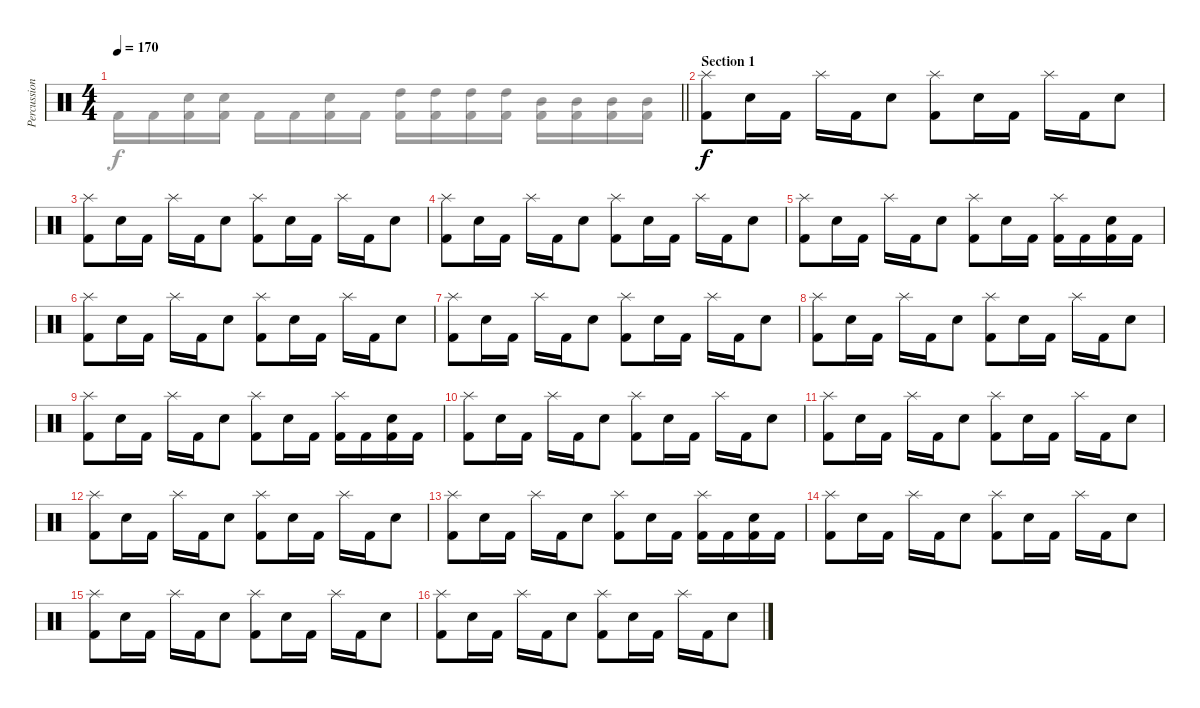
\track ("Percussion" "Percussion") {instrument percussion}
\staff {score}
\articulation defaults
\voice
\ts (4 4)
\tempo 170
\clef neutral
\barLineRight lightlight
\ks c
|
\section ("" "Section 1")
("Splash (hit)" "Kick (hit) 2").8 "Snare (hit) 2".16 "Kick (hit) 2".16 "Splash (hit)".16 "Kick (hit) 2".16 "Snare (hit) 2".8 ("Splash (hit)" "Kick (hit) 2").8 "Snare (hit) 2".16 "Kick (hit) 2".16 "Splash (hit)".16 "Kick (hit) 2".16 "Snare (hit) 2".8 |
("Splash (hit)" "Kick (hit) 2").8 "Snare (hit) 2".16 "Kick (hit) 2".16 "Splash (hit)".16 "Kick (hit) 2".16 "Snare (hit) 2".8 ("Splash (hit)" "Kick (hit) 2").8 "Snare (hit) 2".16 "Kick (hit) 2".16 "Splash (hit)".16 "Kick (hit) 2".16 "Snare (hit) 2".8 |
("Splash (hit)" "Kick (hit) 2").8 "Snare (hit) 2".16 "Kick (hit) 2".16 "Splash (hit)".16 "Kick (hit) 2".16 "Snare (hit) 2".8 ("Splash (hit)" "Kick (hit) 2").8 "Snare (hit) 2".16 "Kick (hit) 2".16 "Splash (hit)".16 "Kick (hit) 2".16 "Snare (hit) 2".8 |
("Splash (hit)" "Kick (hit) 2").8 "Snare (hit) 2".16 "Kick (hit) 2".16 "Splash (hit)".16 "Kick (hit) 2".16 "Snare (hit) 2".8 ("Splash (hit)" "Kick (hit) 2").8 "Snare (hit) 2".16 "Kick (hit) 2".16 ("Splash (hit)" "Kick (hit) 2").16 "Kick (hit) 2".16 ("Snare (hit) 2" "Kick (hit) 2").16 "Kick (hit) 2".16 |
("Splash (hit)" "Kick (hit) 2").8 "Snare (hit) 2".16 "Kick (hit) 2".16 "Splash (hit)".16 "Kick (hit) 2".16 "Snare (hit) 2".8 ("Splash (hit)" "Kick (hit) 2").8 "Snare (hit) 2".16 "Kick (hit) 2".16 "Splash (hit)".16 "Kick (hit) 2".16 "Snare (hit) 2".8 |
("Splash (hit)" "Kick (hit) 2").8 "Snare (hit) 2".16 "Kick (hit) 2".16 "Splash (hit)".16 "Kick (hit) 2".16 "Snare (hit) 2".8 ("Splash (hit)" "Kick (hit) 2").8 "Snare (hit) 2".16 "Kick (hit) 2".16 "Splash (hit)".16 "Kick (hit) 2".16 "Snare (hit) 2".8 |
("Splash (hit)" "Kick (hit) 2").8 "Snare (hit) 2".16 "Kick (hit) 2".16 "Splash (hit)".16 "Kick (hit) 2".16 "Snare (hit) 2".8 ("Splash (hit)" "Kick (hit) 2").8 "Snare (hit) 2".16 "Kick (hit) 2".16 "Splash (hit)".16 "Kick (hit) 2".16 "Snare (hit) 2".8 |
("Splash (hit)" "Kick (hit) 2").8 "Snare (hit) 2".16 "Kick (hit) 2".16 "Splash (hit)".16 "Kick (hit) 2".16 "Snare (hit) 2".8 ("Splash (hit)" "Kick (hit) 2").8 "Snare (hit) 2".16 "Kick (hit) 2".16 ("Splash (hit)" "Kick (hit) 2").16 "Kick (hit) 2".16 ("Snare (hit) 2" "Kick (hit) 2").16 "Kick (hit) 2".16 |
("Splash (hit)" "Kick (hit) 2").8 "Snare (hit) 2".16 "Kick (hit) 2".16 "Splash (hit)".16 "Kick (hit) 2".16 "Snare (hit) 2".8 ("Splash (hit)" "Kick (hit) 2").8 "Snare (hit) 2".16 "Kick (hit) 2".16 "Splash (hit)".16 "Kick (hit) 2".16 "Snare (hit) 2".8 |
("Splash (hit)" "Kick (hit) 2").8 "Snare (hit) 2".16 "Kick (hit) 2".16 "Splash (hit)".16 "Kick (hit) 2".16 "Snare (hit) 2".8 ("Splash (hit)" "Kick (hit) 2").8 "Snare (hit) 2".16 "Kick (hit) 2".16 "Splash (hit)".16 "Kick (hit) 2".16 "Snare (hit) 2".8 |
("Splash (hit)" "Kick (hit) 2").8 "Snare (hit) 2".16 "Kick (hit) 2".16 "Splash (hit)".16 "Kick (hit) 2".16 "Snare (hit) 2".8 ("Splash (hit)" "Kick (hit) 2").8 "Snare (hit) 2".16 "Kick (hit) 2".16 "Splash (hit)".16 "Kick (hit) 2".16 "Snare (hit) 2".8 |
("Splash (hit)" "Kick (hit) 2").8 "Snare (hit) 2".16 "Kick (hit) 2".16 "Splash (hit)".16 "Kick (hit) 2".16 "Snare (hit) 2".8 ("Splash (hit)" "Kick (hit) 2").8 "Snare (hit) 2".16 "Kick (hit) 2".16 ("Splash (hit)" "Kick (hit) 2").16 "Kick (hit) 2".16 ("Snare (hit) 2" "Kick (hit) 2").16 "Kick (hit) 2".16 |
("Splash (hit)" "Kick (hit) 2").8 "Snare (hit) 2".16 "Kick (hit) 2".16 "Splash (hit)".16 "Kick (hit) 2".16 "Snare (hit) 2".8 ("Splash (hit)" "Kick (hit) 2").8 "Snare (hit) 2".16 "Kick (hit) 2".16 "Splash (hit)".16 "Kick (hit) 2".16 "Snare (hit) 2".8 |
("Splash (hit)" "Kick (hit) 2").8 "Snare (hit) 2".16 "Kick (hit) 2".16 "Splash (hit)".16 "Kick (hit) 2".16 "Snare (hit) 2".8 ("Splash (hit)" "Kick (hit) 2").8 "Snare (hit) 2".16 "Kick (hit) 2".16 "Splash (hit)".16 "Kick (hit) 2".16 "Snare (hit) 2".8 |
("Splash (hit)" "Kick (hit) 2").8 "Snare (hit) 2".16 "Kick (hit) 2".16 "Splash (hit)".16 "Kick (hit) 2".16 "Snare (hit) 2".8 ("Splash (hit)" "Kick (hit) 2").8 "Snare (hit) 2".16 "Kick (hit) 2".16 "Splash (hit)".16 "Kick (hit) 2".16 "Snare (hit) 2".8
\voice
\clef neutral
\ottava regular
\simile none
\barLineRight lightlight
\ks c "Kick (hit) 2".16{dy f} "Kick (hit) 2".16
("Snare (hit) 2" "Kick (hit) 2").16 ("Snare (hit) 2" "Kick (hit) 2").16 "Kick (hit) 2".16 "Kick (hit) 2".16 ("Snare (hit) 2" "Kick (hit) 2").16 "Kick (hit) 2".16 ("High Tom (hit)" "Kick (hit) 2").16 ("High Tom (hit)" "Kick (hit) 2").16 ("High Tom (hit)" "Kick (hit) 2").16 ("High Tom (hit)" "Kick (hit) 2").16 ("Mid Tom (hit)" "Kick (hit) 2").16 ("Mid Tom (hit)" "Kick (hit) 2").16 ("Mid Tom (hit)" "Kick (hit) 2").16 ("Mid Tom (hit)" "Kick (hit) 2").16 |
|
|
|
|
|
|
|
|
|
|
|
|
|
|
